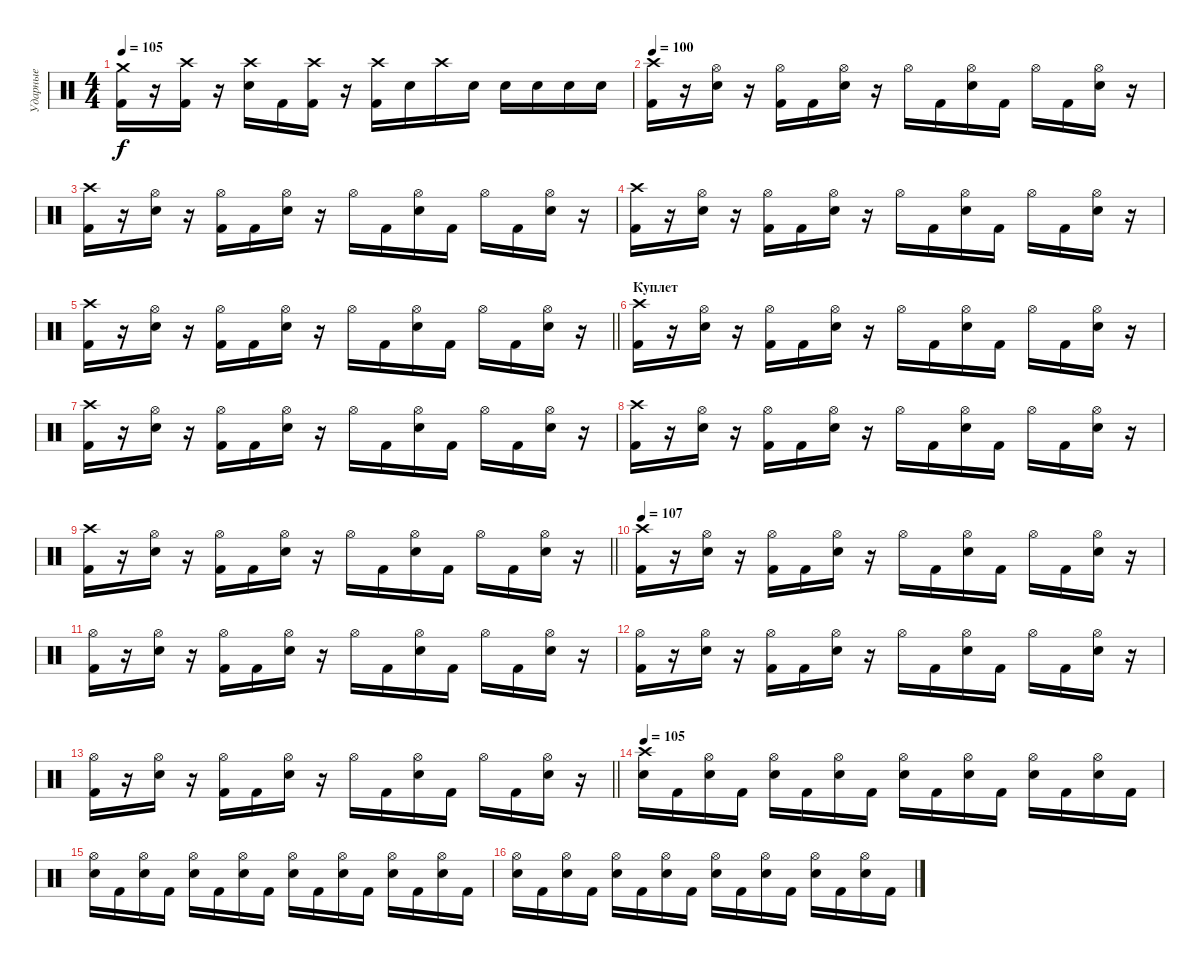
\track ("Ударные" "Ударные") {instrument percussion}
\staff {score}
\articulation defaults
\ts (4 4)
\tempo 105
\clef neutral
\ks c
("Crash medium (hit)" "Kick (hit) 2").16{dy f} r.16 ("Crash high (hit)" "Kick (hit) 2").16 r.16 ("Crash high (hit)" "Electric Snare (hit)").16 "Kick (hit) 2".16 ("Crash high (hit)" "Kick (hit) 2").16 r.16 ("Crash high (hit)" "Kick (hit) 2").16 "Electric Snare (hit)".16 "Crash high (hit)".16 "Electric Snare (hit)".16 "Electric Snare (hit)".16 "Electric Snare (hit)".16 "Electric Snare (hit)".16 "Electric Snare (hit)".16 |
\tempo 100
("Crash high (hit)" "Kick (hit) 2").16 r.16 ("Hi-Hat (open)" "Electric Snare (hit)").16 r.16 ("Hi-Hat (open)" "Kick (hit) 2").16 "Kick (hit) 2".16 ("Hi-Hat (open)" "Electric Snare (hit)").16 r.16 "Hi-Hat (open)".16 "Kick (hit) 2".16 ("Hi-Hat (open)" "Electric Snare (hit)").16 "Kick (hit) 2".16 "Hi-Hat (open)".16 "Kick (hit) 2".16 ("Hi-Hat (open)" "Electric Snare (hit)").16 r.16 |
("Crash high (hit)" "Kick (hit) 2").16 r.16 ("Hi-Hat (open)" "Electric Snare (hit)").16 r.16 ("Hi-Hat (open)" "Kick (hit) 2").16 "Kick (hit) 2".16 ("Hi-Hat (open)" "Electric Snare (hit)").16 r.16 "Hi-Hat (open)".16 "Kick (hit) 2".16 ("Hi-Hat (open)" "Electric Snare (hit)").16 "Kick (hit) 2".16 "Hi-Hat (open)".16 "Kick (hit) 2".16 ("Hi-Hat (open)" "Electric Snare (hit)").16 r.16 |
("Crash high (hit)" "Kick (hit) 2").16 r.16 ("Hi-Hat (open)" "Electric Snare (hit)").16 r.16 ("Hi-Hat (open)" "Kick (hit) 2").16 "Kick (hit) 2".16 ("Hi-Hat (open)" "Electric Snare (hit)").16 r.16 "Hi-Hat (open)".16 "Kick (hit) 2".16 ("Hi-Hat (open)" "Electric Snare (hit)").16 "Kick (hit) 2".16 "Hi-Hat (open)".16 "Kick (hit) 2".16 ("Hi-Hat (open)" "Electric Snare (hit)").16 r.16 |
\barLineRight lightlight
("Crash high (hit)" "Kick (hit) 2").16 r.16 ("Hi-Hat (open)" "Electric Snare (hit)").16 r.16 ("Hi-Hat (open)" "Kick (hit) 2").16 "Kick (hit) 2".16 ("Hi-Hat (open)" "Electric Snare (hit)").16 r.16 "Hi-Hat (open)".16 "Kick (hit) 2".16 ("Hi-Hat (open)" "Electric Snare (hit)").16 "Kick (hit) 2".16 "Hi-Hat (open)".16 "Kick (hit) 2".16 ("Hi-Hat (open)" "Electric Snare (hit)").16 r.16 |
\section ("" "Куплет")
("Crash high (hit)" "Kick (hit) 2").16 r.16 ("Hi-Hat (open)" "Electric Snare (hit)").16 r.16 ("Hi-Hat (open)" "Kick (hit) 2").16 "Kick (hit) 2".16 ("Hi-Hat (open)" "Electric Snare (hit)").16 r.16 "Hi-Hat (open)".16 "Kick (hit) 2".16 ("Hi-Hat (open)" "Electric Snare (hit)").16 "Kick (hit) 2".16 "Hi-Hat (open)".16 "Kick (hit) 2".16 ("Hi-Hat (open)" "Electric Snare (hit)").16 r.16 |
("Crash high (hit)" "Kick (hit) 2").16 r.16 ("Hi-Hat (open)" "Electric Snare (hit)").16 r.16 ("Hi-Hat (open)" "Kick (hit) 2").16 "Kick (hit) 2".16 ("Hi-Hat (open)" "Electric Snare (hit)").16 r.16 "Hi-Hat (open)".16 "Kick (hit) 2".16 ("Hi-Hat (open)" "Electric Snare (hit)").16 "Kick (hit) 2".16 "Hi-Hat (open)".16 "Kick (hit) 2".16 ("Hi-Hat (open)" "Electric Snare (hit)").16 r.16 |
("Crash high (hit)" "Kick (hit) 2").16 r.16 ("Hi-Hat (open)" "Electric Snare (hit)").16 r.16 ("Hi-Hat (open)" "Kick (hit) 2").16 "Kick (hit) 2".16 ("Hi-Hat (open)" "Electric Snare (hit)").16 r.16 "Hi-Hat (open)".16 "Kick (hit) 2".16 ("Hi-Hat (open)" "Electric Snare (hit)").16 "Kick (hit) 2".16 "Hi-Hat (open)".16 "Kick (hit) 2".16 ("Hi-Hat (open)" "Electric Snare (hit)").16 r.16 |
\barLineRight lightlight
("Crash high (hit)" "Kick (hit) 2").16 r.16 ("Hi-Hat (open)" "Electric Snare (hit)").16 r.16 ("Hi-Hat (open)" "Kick (hit) 2").16 "Kick (hit) 2".16 ("Hi-Hat (open)" "Electric Snare (hit)").16 r.16 "Hi-Hat (open)".16 "Kick (hit) 2".16 ("Hi-Hat (open)" "Electric Snare (hit)").16 "Kick (hit) 2".16 "Hi-Hat (open)".16 "Kick (hit) 2".16 ("Hi-Hat (open)" "Electric Snare (hit)").16 r.16 |
\tempo 107
("Crash high (hit)" "Kick (hit) 2").16 r.16 ("Hi-Hat (open)" "Electric Snare (hit)").16 r.16 ("Hi-Hat (open)" "Kick (hit) 2").16 "Kick (hit) 2".16 ("Hi-Hat (open)" "Electric Snare (hit)").16 r.16 "Hi-Hat (open)".16 "Kick (hit) 2".16 ("Hi-Hat (open)" "Electric Snare (hit)").16 "Kick (hit) 2".16 "Hi-Hat (open)".16 "Kick (hit) 2".16 ("Hi-Hat (open)" "Electric Snare (hit)").16 r.16 |
("Hi-Hat (open)" "Kick (hit) 2").16 r.16 ("Hi-Hat (open)" "Electric Snare (hit)").16 r.16 ("Hi-Hat (open)" "Kick (hit) 2").16 "Kick (hit) 2".16 ("Hi-Hat (open)" "Electric Snare (hit)").16 r.16 "Hi-Hat (open)".16 "Kick (hit) 2".16 ("Hi-Hat (open)" "Electric Snare (hit)").16 "Kick (hit) 2".16 "Hi-Hat (open)".16 "Kick (hit) 2".16 ("Hi-Hat (open)" "Electric Snare (hit)").16 r.16 |
("Hi-Hat (open)" "Kick (hit) 2").16 r.16 ("Hi-Hat (open)" "Electric Snare (hit)").16 r.16 ("Hi-Hat (open)" "Kick (hit) 2").16 "Kick (hit) 2".16 ("Hi-Hat (open)" "Electric Snare (hit)").16 r.16 "Hi-Hat (open)".16 "Kick (hit) 2".16 ("Hi-Hat (open)" "Electric Snare (hit)").16 "Kick (hit) 2".16 "Hi-Hat (open)".16 "Kick (hit) 2".16 ("Hi-Hat (open)" "Electric Snare (hit)").16 r.16 |
\barLineRight lightlight
("Hi-Hat (open)" "Kick (hit) 2").16 r.16 ("Hi-Hat (open)" "Electric Snare (hit)").16 r.16 ("Hi-Hat (open)" "Kick (hit) 2").16 "Kick (hit) 2".16 ("Hi-Hat (open)" "Electric Snare (hit)").16 r.16 "Hi-Hat (open)".16 "Kick (hit) 2".16 ("Hi-Hat (open)" "Electric Snare (hit)").16 "Kick (hit) 2".16 "Hi-Hat (open)".16 "Kick (hit) 2".16 ("Hi-Hat (open)" "Electric Snare (hit)").16 r.16 |
\tempo 105
("Crash high (hit)" "Electric Snare (hit)").16 "Kick (hit) 2".16 ("Hi-Hat (open)" "Electric Snare (hit)").16 "Kick (hit) 2".16 ("Hi-Hat (open)" "Electric Snare (hit)").16 "Kick (hit) 2".16 ("Hi-Hat (open)" "Electric Snare (hit)").16 "Kick (hit) 2".16 ("Hi-Hat (open)" "Electric Snare (hit)").16 "Kick (hit) 2".16 ("Hi-Hat (open)" "Electric Snare (hit)").16 "Kick (hit) 2".16 ("Hi-Hat (open)" "Electric Snare (hit)").16 "Kick (hit) 2".16 ("Hi-Hat (open)" "Electric Snare (hit)").16 "Kick (hit) 2".16 |
("Hi-Hat (open)" "Electric Snare (hit)").16 "Kick (hit) 2".16 ("Hi-Hat (open)" "Electric Snare (hit)").16 "Kick (hit) 2".16 ("Hi-Hat (open)" "Electric Snare (hit)").16 "Kick (hit) 2".16 ("Hi-Hat (open)" "Electric Snare (hit)").16 "Kick (hit) 2".16 ("Hi-Hat (open)" "Electric Snare (hit)").16 "Kick (hit) 2".16 ("Hi-Hat (open)" "Electric Snare (hit)").16 "Kick (hit) 2".16 ("Hi-Hat (open)" "Electric Snare (hit)").16 "Kick (hit) 2".16 ("Hi-Hat (open)" "Electric Snare (hit)").16 "Kick (hit) 2".16 |
("Hi-Hat (open)" "Electric Snare (hit)").16 "Kick (hit) 2".16 ("Hi-Hat (open)" "Electric Snare (hit)").16 "Kick (hit) 2".16 ("Hi-Hat (open)" "Electric Snare (hit)").16 "Kick (hit) 2".16 ("Hi-Hat (open)" "Electric Snare (hit)").16 "Kick (hit) 2".16 ("Hi-Hat (open)" "Electric Snare (hit)").16 "Kick (hit) 2".16 ("Hi-Hat (open)" "Electric Snare (hit)").16 "Kick (hit) 2".16 ("Hi-Hat (open)" "Electric Snare (hit)").16 "Kick (hit) 2".16 ("Hi-Hat (open)" "Electric Snare (hit)").16 "Kick (hit) 2".16
